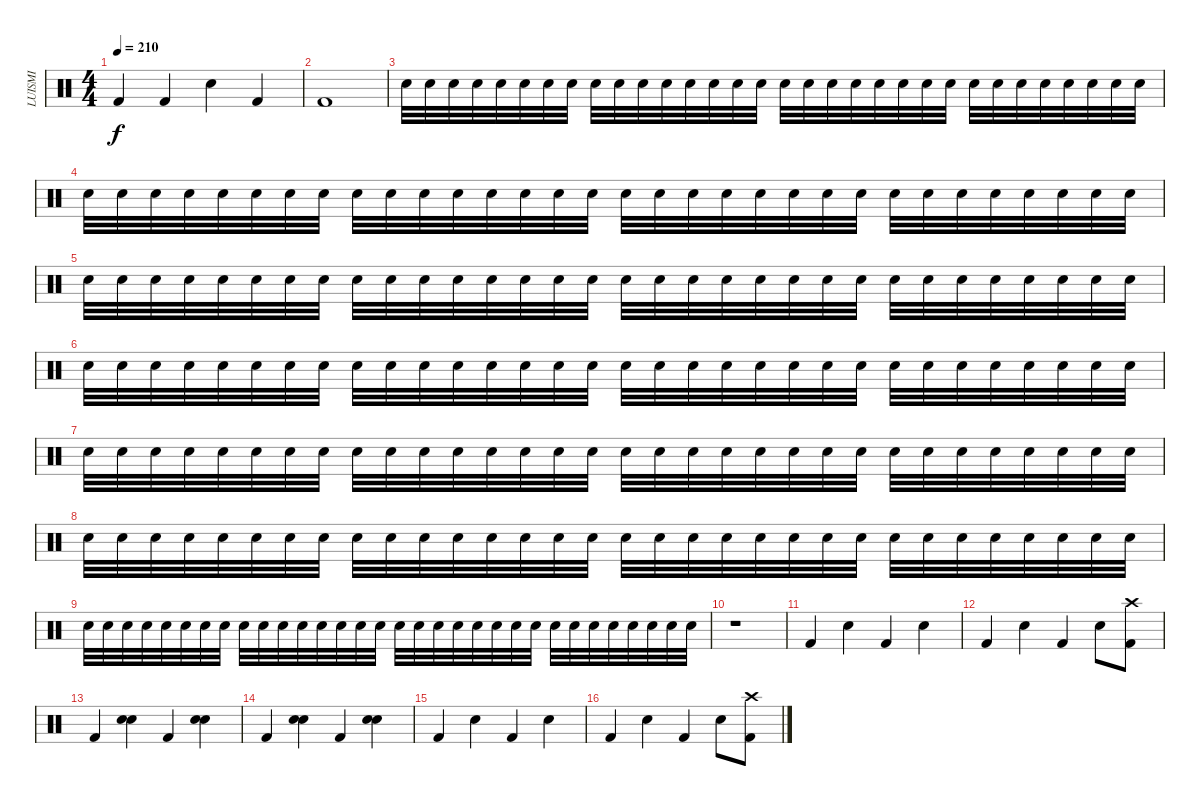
\track ("LUISMI" "LUISMI") {instrument percussion}
\staff {score}
\articulation defaults
\ts (4 4)
\tempo 210
\clef neutral
\ks c "Kick (hit) 2".4{dy f} "Kick (hit) 2".4 "Snare (hit) 2".4 "Kick (hit) 2".4
|
"Kick (hit) 2".1 |
"Electric Snare (hit)".32{volume 1} "Snare (hit) 2".32 "Snare (hit) 2".32 "Snare (hit) 2".32 "Snare (hit) 2".32 "Snare (hit) 2".32 "Snare (hit) 2".32 "Snare (hit) 2".32 "Snare (hit) 2".32 "Snare (hit) 2".32 "Snare (hit) 2".32 "Snare (hit) 2".32 "Snare (hit) 2".32 "Snare (hit) 2".32 "Snare (hit) 2".32 "Snare (hit) 2".32 "Electric Snare (hit)".32{volume 2} "Snare (hit) 2".32 "Snare (hit) 2".32 "Snare (hit) 2".32 "Snare (hit) 2".32 "Snare (hit) 2".32 "Snare (hit) 2".32 "Snare (hit) 2".32 "Snare (hit) 2".32 "Snare (hit) 2".32 "Snare (hit) 2".32 "Snare (hit) 2".32 "Snare (hit) 2".32 "Snare (hit) 2".32 "Snare (hit) 2".32 "Snare (hit) 2".32 |
"Electric Snare (hit)".32 "Snare (hit) 2".32 "Snare (hit) 2".32 "Snare (hit) 2".32 "Snare (hit) 2".32 "Snare (hit) 2".32 "Snare (hit) 2".32 "Snare (hit) 2".32 "Snare (hit) 2".32 "Snare (hit) 2".32 "Snare (hit) 2".32 "Snare (hit) 2".32 "Snare (hit) 2".32 "Snare (hit) 2".32 "Snare (hit) 2".32 "Snare (hit) 2".32 "Electric Snare (hit)".32 "Snare (hit) 2".32 "Snare (hit) 2".32 "Snare (hit) 2".32 "Snare (hit) 2".32 "Snare (hit) 2".32 "Snare (hit) 2".32 "Snare (hit) 2".32 "Snare (hit) 2".32 "Snare (hit) 2".32 "Snare (hit) 2".32 "Snare (hit) 2".32 "Snare (hit) 2".32 "Snare (hit) 2".32 "Snare (hit) 2".32 "Snare (hit) 2".32 |
"Electric Snare (hit)".32 "Snare (hit) 2".32 "Snare (hit) 2".32 "Snare (hit) 2".32 "Snare (hit) 2".32 "Snare (hit) 2".32 "Snare (hit) 2".32 "Snare (hit) 2".32 "Snare (hit) 2".32 "Snare (hit) 2".32 "Snare (hit) 2".32 "Snare (hit) 2".32 "Snare (hit) 2".32 "Snare (hit) 2".32 "Snare (hit) 2".32 "Snare (hit) 2".32 "Electric Snare (hit)".32 "Snare (hit) 2".32 "Snare (hit) 2".32 "Snare (hit) 2".32 "Snare (hit) 2".32 "Snare (hit) 2".32 "Snare (hit) 2".32 "Snare (hit) 2".32 "Snare (hit) 2".32 "Snare (hit) 2".32 "Snare (hit) 2".32 "Snare (hit) 2".32 "Snare (hit) 2".32 "Snare (hit) 2".32 "Snare (hit) 2".32 "Snare (hit) 2".32 |
"Electric Snare (hit)".32 "Snare (hit) 2".32 "Snare (hit) 2".32 "Snare (hit) 2".32 "Snare (hit) 2".32 "Snare (hit) 2".32 "Snare (hit) 2".32 "Snare (hit) 2".32 "Snare (hit) 2".32 "Snare (hit) 2".32 "Snare (hit) 2".32 "Snare (hit) 2".32 "Snare (hit) 2".32 "Snare (hit) 2".32 "Snare (hit) 2".32 "Snare (hit) 2".32 "Electric Snare (hit)".32 "Snare (hit) 2".32 "Snare (hit) 2".32 "Snare (hit) 2".32 "Snare (hit) 2".32 "Snare (hit) 2".32 "Snare (hit) 2".32 "Snare (hit) 2".32 "Snare (hit) 2".32 "Snare (hit) 2".32 "Snare (hit) 2".32 "Snare (hit) 2".32 "Snare (hit) 2".32 "Snare (hit) 2".32 "Snare (hit) 2".32 "Snare (hit) 2".32 |
"Electric Snare (hit)".32{volume 3} "Snare (hit) 2".32 "Snare (hit) 2".32 "Snare (hit) 2".32 "Snare (hit) 2".32 "Snare (hit) 2".32 "Snare (hit) 2".32 "Snare (hit) 2".32 "Snare (hit) 2".32 "Snare (hit) 2".32 "Snare (hit) 2".32 "Snare (hit) 2".32 "Snare (hit) 2".32 "Snare (hit) 2".32 "Snare (hit) 2".32 "Snare (hit) 2".32 "Electric Snare (hit)".32 "Snare (hit) 2".32 "Snare (hit) 2".32 "Snare (hit) 2".32 "Snare (hit) 2".32 "Snare (hit) 2".32 "Snare (hit) 2".32 "Snare (hit) 2".32 "Snare (hit) 2".32 "Snare (hit) 2".32 "Snare (hit) 2".32 "Snare (hit) 2".32 "Snare (hit) 2".32 "Snare (hit) 2".32 "Snare (hit) 2".32 "Snare (hit) 2".32 |
"Electric Snare (hit)".32{volume 4} "Snare (hit) 2".32 "Snare (hit) 2".32 "Snare (hit) 2".32 "Snare (hit) 2".32 "Snare (hit) 2".32 "Snare (hit) 2".32 "Snare (hit) 2".32 "Snare (hit) 2".32 "Snare (hit) 2".32 "Snare (hit) 2".32 "Snare (hit) 2".32 "Snare (hit) 2".32 "Snare (hit) 2".32 "Snare (hit) 2".32 "Snare (hit) 2".32 "Electric Snare (hit)".32 "Snare (hit) 2".32 "Snare (hit) 2".32 "Snare (hit) 2".32 "Snare (hit) 2".32 "Snare (hit) 2".32 "Snare (hit) 2".32 "Snare (hit) 2".32 "Snare (hit) 2".32 "Snare (hit) 2".32 "Snare (hit) 2".32 "Snare (hit) 2".32 "Snare (hit) 2".32 "Snare (hit) 2".32 "Snare (hit) 2".32 "Snare (hit) 2".32 |
"Electric Snare (hit)".32{volume 5} "Snare (hit) 2".32 "Snare (hit) 2".32 "Snare (hit) 2".32 "Snare (hit) 2".32 "Snare (hit) 2".32 "Snare (hit) 2".32 "Snare (hit) 2".32 "Snare (hit) 2".32 "Snare (hit) 2".32 "Snare (hit) 2".32 "Snare (hit) 2".32 "Snare (hit) 2".32 "Snare (hit) 2".32 "Snare (hit) 2".32 "Snare (hit) 2".32 "Electric Snare (hit)".32 "Snare (hit) 2".32 "Snare (hit) 2".32 "Snare (hit) 2".32 "Snare (hit) 2".32 "Snare (hit) 2".32 "Snare (hit) 2".32 "Snare (hit) 2".32 "Snare (hit) 2".32 "Snare (hit) 2".32 "Snare (hit) 2".32 "Snare (hit) 2".32 "Snare (hit) 2".32 "Snare (hit) 2".32 "Snare (hit) 2".32 "Electric Snare (hit)".32{volume 16} |
r.1 |
"Kick (hit) 2".4 "Electric Snare (hit)".4 "Kick (hit) 2".4 "Electric Snare (hit)".4 |
"Kick (hit) 2".4 "Electric Snare (hit)".4 "Kick (hit) 2".4 "Electric Snare (hit)".8 ("Crash high (hit)" "Kick (hit) 2").8 |
"Kick (hit) 2".4 ("Electric Snare (hit)" "Snare (hit) 2").4 "Kick (hit) 2".4 ("Electric Snare (hit)" "Snare (hit) 2").4 |
"Kick (hit) 2".4 ("Electric Snare (hit)" "Snare (hit) 2").4 "Kick (hit) 2".4 ("Electric Snare (hit)" "Snare (hit) 2").4 |
"Kick (hit) 2".4 "Electric Snare (hit)".4 "Kick (hit) 2".4 "Electric Snare (hit)".4 |
"Kick (hit) 2".4 "Electric Snare (hit)".4 "Kick (hit) 2".4 "Electric Snare (hit)".8 ("Crash high (hit)" "Kick (hit) 2").8
